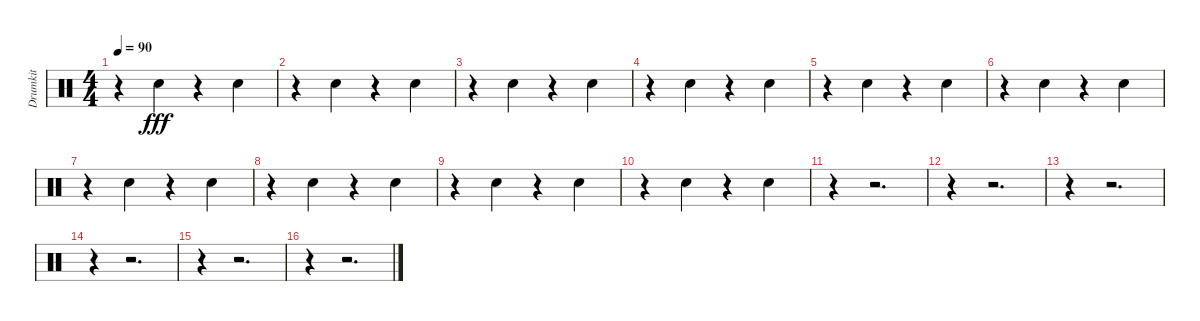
\track ("Drumkit" "Drumkit") {instrument percussion}
\staff {score}
\articulation defaults
\ts (4 4)
\tempo 90
\clef neutral
\ks c
r.4{dy fff} "Snare (hit) 2".4 r.4 "Snare (hit) 2".4 |
r.4 "Snare (hit) 2".4 r.4 "Snare (hit) 2".4 |
r.4 "Snare (hit) 2".4 r.4 "Snare (hit) 2".4 |
r.4 "Snare (hit) 2".4 r.4 "Snare (hit) 2".4 |
r.4 "Snare (hit) 2".4 r.4 "Snare (hit) 2".4 |
r.4 "Snare (hit) 2".4 r.4 "Snare (hit) 2".4 |
r.4 "Snare (hit) 2".4 r.4 "Snare (hit) 2".4 |
r.4 "Snare (hit) 2".4 r.4 "Snare (hit) 2".4 |
r.4 "Snare (hit) 2".4 r.4 "Snare (hit) 2".4 |
r.4 "Snare (hit) 2".4 r.4 "Snare (hit) 2".4 |
r.4 r.2{d} |
r.4 r.2{d} |
r.4 r.2{d} |
r.4 r.2{d} |
r.4 r.2{d} |
r.4 r.2{d}
